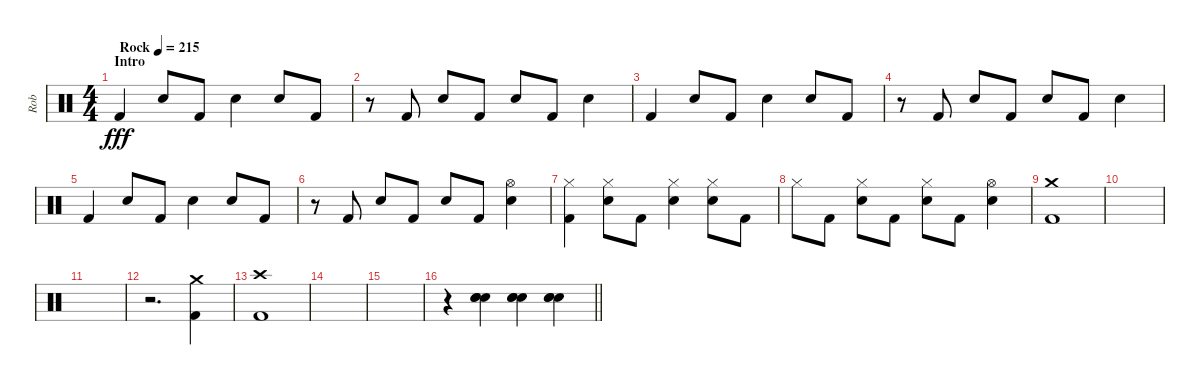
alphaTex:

\track ("Rob" "Rob") {instrument percussion}
\staff {score}
\articulation defaults
\ts (4 4)
\section ("" "Intro")
\tempo (215 "Rock")
\clef neutral
\ks c "Kick (hit) 2".4{dy fff volume 8} "Electric Snare (hit)".8 "Kick (hit) 2".8 "Electric Snare (hit)".4 "Electric Snare (hit)".8 "Kick (hit) 2".8
|
r.8 "Kick (hit) 2".8 "Electric Snare (hit)".8 "Kick (hit) 2".8 "Electric Snare (hit)".8 "Kick (hit) 2".8 "Electric Snare (hit)".4 |
"Kick (hit) 2".4 "Electric Snare (hit)".8 "Kick (hit) 2".8 "Electric Snare (hit)".4 "Electric Snare (hit)".8 "Kick (hit) 2".8 |
r.8 "Kick (hit) 2".8 "Electric Snare (hit)".8 "Kick (hit) 2".8 "Electric Snare (hit)".8 "Kick (hit) 2".8 "Electric Snare (hit)".4 |
"Kick (hit) 2".4{volume 16} "Electric Snare (hit)".8 "Kick (hit) 2".8 "Electric Snare (hit)".4 "Electric Snare (hit)".8 "Kick (hit) 2".8 |
r.8 "Kick (hit) 2".8 "Electric Snare (hit)".8 "Kick (hit) 2".8 "Electric Snare (hit)".8 "Kick (hit) 2".8 ("Hi-Hat (open)" "Electric Snare (hit)").4 |
("Hi-Hat (closed)" "Kick (hit) 2").4 ("Hi-Hat (closed)" "Electric Snare (hit)").8 "Kick (hit) 2".8 ("Hi-Hat (closed)" "Electric Snare (hit)").4 ("Hi-Hat (closed)" "Electric Snare (hit)").8 "Kick (hit) 2".8 |
"Hi-Hat (closed)".8 "Kick (hit) 2".8 ("Hi-Hat (closed)" "Electric Snare (hit)").8 "Kick (hit) 2".8 ("Hi-Hat (closed)" "Electric Snare (hit)").8 "Kick (hit) 2".8 ("Hi-Hat (open)" "Electric Snare (hit)").4 |
("Crash medium (hit)" "Kick (hit) 2").1 |
|
|
r.2{d} ("Crash medium (hit)" "Kick (hit) 2").4 |
("Crash high (hit)" "Kick (hit) 2").1 |
|
|
\barLineRight lightlight
r.4 ("Hand Clap (hit)" "Hand Clap (hit)" "Hand Clap (hit)").4 ("Hand Clap (hit)" "Hand Clap (hit)" "Hand Clap (hit)").4 ("Hand Clap (hit)" "Hand Clap (hit)" "Hand Clap (hit)").4
